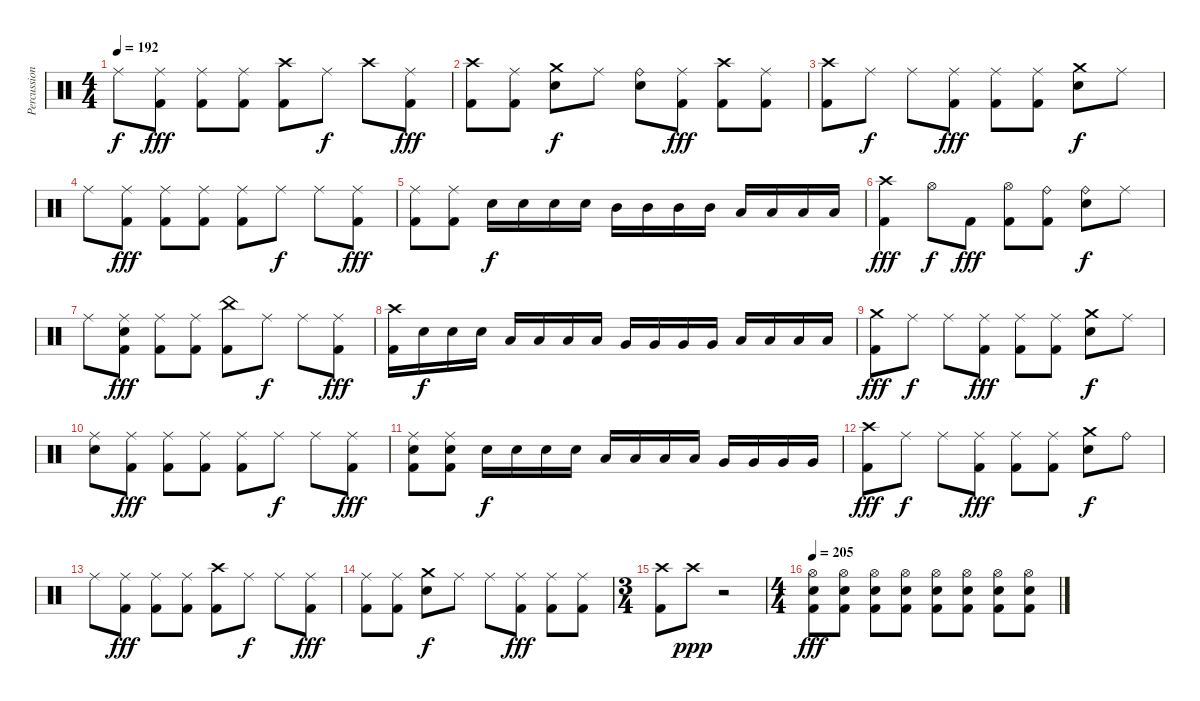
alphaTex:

\track ("Percussion" "Percussion") {instrument percussion}
\staff {score}
\articulation defaults
\ts (4 4)
\tempo 192
\clef neutral
\ks c "Ride (middle)".8{dy f}
("Ride (middle)" "Kick (hit) 2").8{dy fff} ("Ride (middle)" "Kick (hit) 2").8 ("Ride (middle)" "Kick (hit) 2").8 ("Crash high (hit)" "Kick (hit) 2").8 "Ride (middle)".8{dy f} "Crash high (hit)".8 ("Ride (middle)" "Kick (hit) 2").8{dy fff} |
("Crash high (hit)" "Kick (hit) 2").8 ("Ride (middle)" "Kick (hit) 2").8 ("Crash medium (hit)" "Electric Snare (hit)").8{dy f} "Ride (middle)".8 ("Ride (bell)" "Electric Snare (hit)").8 ("Ride (middle)" "Kick (hit) 2").8{dy fff} ("Crash high (hit)" "Kick (hit) 2").8 ("Ride (middle)" "Kick (hit) 2").8 |
("Crash high (hit)" "Kick (hit) 2").8 "Ride (middle)".8{dy f} "Ride (middle)".8 ("Ride (middle)" "Kick (hit) 2").8{dy fff} ("Ride (middle)" "Kick (hit) 2").8 ("Ride (middle)" "Kick (hit) 2").8 ("Crash medium (hit)" "Electric Snare (hit)").8{dy f} "Ride (middle)".8 |
"Ride (middle)".8 ("Ride (middle)" "Kick (hit) 2").8{dy fff} ("Ride (middle)" "Kick (hit) 2").8 ("Ride (middle)" "Kick (hit) 2").8 ("Ride (middle)" "Kick (hit) 2").8 "Ride (middle)".8{dy f} "Ride (middle)".8 ("Ride (middle)" "Kick (hit) 2").8{dy fff} |
("Ride (middle)" "Kick (hit) 2").8 ("Ride (middle)" "Kick (hit) 2").8 "Electric Snare (hit)".16{dy f} "Electric Snare (hit)".16 "Electric Snare (hit)".16 "Electric Snare (hit)".16 "Mid Tom (hit)".16 "Mid Tom (hit)".16 "Mid Tom (hit)".16 "Mid Tom (hit)".16 "Low Tom (hit)".16 "Low Tom (hit)".16 "Low Tom (hit)".16 "Low Tom (hit)".16 |
("Crash high (hit)" "Kick (hit) 2").4{dy fff} "Hi-Hat (open)".8{dy f} "Kick (hit) 2".8{dy fff} ("Hi-Hat (open)" "Kick (hit) 2").8 ("Ride (bell)" "Kick (hit) 2").8 ("Ride (bell)" "Electric Snare (hit)").8{dy f} "Ride (middle)".8 |
"Ride (middle)".8 ("Ride (middle)" "Electric Snare (hit)" "Kick (hit) 2").8{dy fff} ("Ride (middle)" "Kick (hit) 2").8 ("Ride (middle)" "Kick (hit) 2").8 ("China (hit)" "Kick (hit) 2").8 "Ride (middle)".8{dy f} "Ride (middle)".8 ("Ride (middle)" "Kick (hit) 2").8{dy fff} |
("Crash high (hit)" "Kick (hit) 2").16 "Electric Snare (hit)".16{dy f} "Electric Snare (hit)".16 "Electric Snare (hit)".16 "Low Tom (hit)".16 "Low Tom (hit)".16 "Low Tom (hit)".16 "Low Tom (hit)".16 "Very Low Tom (hit)".16 "Very Low Tom (hit)".16 "Very Low Tom (hit)".16 "Very Low Tom (hit)".16 "Low Floor Tom (hit)".16 "Low Floor Tom (hit)".16 "Low Floor Tom (hit)".16 "Low Floor Tom (hit)".16 |
("Crash medium (hit)" "Kick (hit) 2").8{dy fff} "Ride (middle)".8{dy f} "Ride (middle)".8 ("Ride (middle)" "Kick (hit) 2").8{dy fff} ("Ride (middle)" "Kick (hit) 2").8 ("Ride (middle)" "Kick (hit) 2").8 ("Crash medium (hit)" "Electric Snare (hit)").8{dy f} "Ride (middle)".8 |
("Ride (middle)" "Electric Snare (hit)").8 ("Ride (middle)" "Kick (hit) 2").8{dy fff} ("Ride (middle)" "Kick (hit) 2").8 ("Ride (middle)" "Kick (hit) 2").8 ("Ride (middle)" "Kick (hit) 2").8 "Ride (middle)".8{dy f} "Ride (middle)".8 ("Ride (middle)" "Kick (hit) 2").8{dy fff} |
("Ride (middle)" "Electric Snare (hit)" "Kick (hit) 2").8 ("Ride (middle)" "Electric Snare (hit)" "Kick (hit) 2").8 "Electric Snare (hit)".16{dy f} "Electric Snare (hit)".16 "Electric Snare (hit)".16 "Electric Snare (hit)".16 "Low Tom (hit)".16 "Low Tom (hit)".16 "Low Tom (hit)".16 "Low Tom (hit)".16 "Very Low Tom (hit)".16 "Very Low Tom (hit)".16 "Very Low Tom (hit)".16 "Very Low Tom (hit)".16 |
("Crash high (hit)" "Kick (hit) 2").8{dy fff} "Ride (middle)".8{dy f} "Ride (middle)".8 ("Ride (middle)" "Kick (hit) 2").8{dy fff} ("Ride (middle)" "Kick (hit) 2").8 ("Ride (middle)" "Kick (hit) 2").8 ("Crash medium (hit)" "Electric Snare (hit)").8{dy f} "Ride (bell)".8 |
"Ride (middle)".8 ("Ride (middle)" "Kick (hit) 2").8{dy fff} ("Ride (middle)" "Kick (hit) 2").8 ("Ride (middle)" "Kick (hit) 2").8 ("Crash high (hit)" "Kick (hit) 2").8 "Ride (middle)".8{dy f} "Ride (middle)".8 ("Ride (middle)" "Kick (hit) 2").8{dy fff} |
("Ride (middle)" "Kick (hit) 2").8 ("Ride (middle)" "Kick (hit) 2").8 ("Crash medium (hit)" "Electric Snare (hit)").8{dy f} "Ride (middle)".8 "Ride (middle)".8 ("Ride (middle)" "Kick (hit) 2").8{dy fff} ("Ride (middle)" "Kick (hit) 2").8 ("Ride (middle)" "Kick (hit) 2").8 |
\ts (3 4)
("Crash high (hit)" "Kick (hit) 2").8 "Crash high (hit)".8{dy ppp} r.2 |
\ts (4 4)
\tempo 205
("Hi-Hat (open)" "Electric Snare (hit)" "Kick (hit) 2").8{dy fff} ("Hi-Hat (open)" "Electric Snare (hit)" "Kick (hit) 2").8 ("Hi-Hat (open)" "Electric Snare (hit)" "Kick (hit) 2").8 ("Hi-Hat (open)" "Electric Snare (hit)" "Kick (hit) 2").8 ("Hi-Hat (open)" "Electric Snare (hit)" "Kick (hit) 2").8 ("Hi-Hat (open)" "Electric Snare (hit)" "Kick (hit) 2").8 ("Hi-Hat (open)" "Electric Snare (hit)" "Kick (hit) 2").8 ("Hi-Hat (open)" "Electric Snare (hit)" "Kick (hit) 2").8
